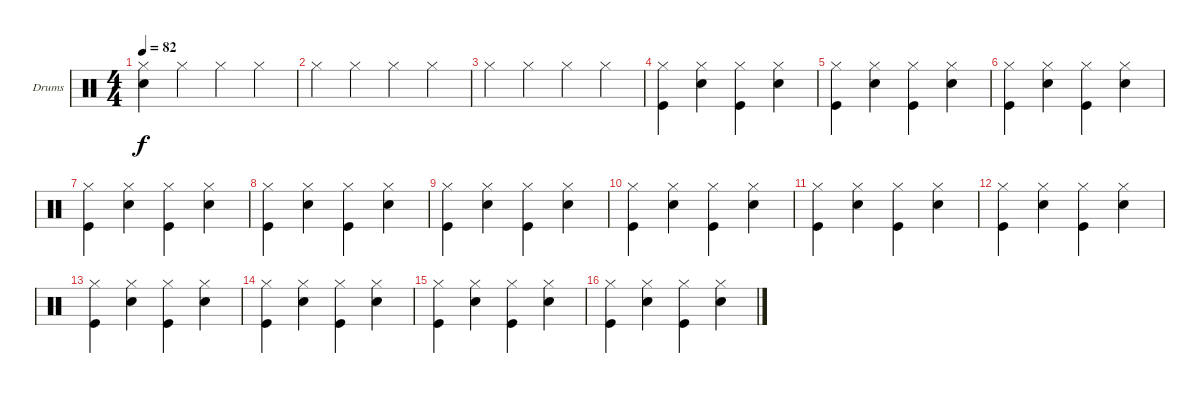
\bracketExtendMode groupsimilarinstruments
\firstSystemTrackNameOrientation horizontal
\otherSystemsTrackNameOrientation horizontal
\track ("Drumkit" "Drums") {instrument percussion}
\staff {score}
\articulation defaults
\ts (4 4)
\tempo 82
\clef neutral
\ks c
("Snare (hit) 2" "Hi-Hat (closed)").4{dy f} "Hi-Hat (closed)".4 "Hi-Hat (closed)".4 "Hi-Hat (closed)".4 |
"Hi-Hat (closed)".4 "Hi-Hat (closed)".4 "Hi-Hat (closed)".4 "Hi-Hat (closed)".4 |
"Hi-Hat (closed)".4 "Hi-Hat (closed)".4 "Hi-Hat (closed)".4 "Hi-Hat (closed)".4 |
("Hi-Hat (closed)" "Kick (hit)").4 ("Hi-Hat (closed)" "Snare (hit) 2").4 ("Hi-Hat (closed)" "Kick (hit)").4 ("Hi-Hat (closed)" "Snare (hit) 2").4 |
("Hi-Hat (closed)" "Kick (hit)").4 ("Hi-Hat (closed)" "Snare (hit) 2").4 ("Hi-Hat (closed)" "Kick (hit)").4 ("Hi-Hat (closed)" "Snare (hit) 2").4 |
("Hi-Hat (closed)" "Kick (hit)").4 ("Hi-Hat (closed)" "Snare (hit) 2").4 ("Hi-Hat (closed)" "Kick (hit)").4 ("Hi-Hat (closed)" "Snare (hit) 2").4 |
("Hi-Hat (closed)" "Kick (hit)").4 ("Hi-Hat (closed)" "Snare (hit) 2").4 ("Hi-Hat (closed)" "Kick (hit)").4 ("Hi-Hat (closed)" "Snare (hit) 2").4 |
("Hi-Hat (closed)" "Kick (hit)").4 ("Hi-Hat (closed)" "Snare (hit) 2").4 ("Hi-Hat (closed)" "Kick (hit)").4 ("Hi-Hat (closed)" "Snare (hit) 2").4 |
("Hi-Hat (closed)" "Kick (hit)").4 ("Hi-Hat (closed)" "Snare (hit) 2").4 ("Hi-Hat (closed)" "Kick (hit)").4 ("Hi-Hat (closed)" "Snare (hit) 2").4 |
("Hi-Hat (closed)" "Kick (hit)").4 ("Hi-Hat (closed)" "Snare (hit) 2").4 ("Hi-Hat (closed)" "Kick (hit)").4 ("Hi-Hat (closed)" "Snare (hit) 2").4 |
("Hi-Hat (closed)" "Kick (hit)").4 ("Hi-Hat (closed)" "Snare (hit) 2").4 ("Hi-Hat (closed)" "Kick (hit)").4 ("Hi-Hat (closed)" "Snare (hit) 2").4 |
("Hi-Hat (closed)" "Kick (hit)").4 ("Hi-Hat (closed)" "Snare (hit) 2").4 ("Hi-Hat (closed)" "Kick (hit)").4 ("Hi-Hat (closed)" "Snare (hit) 2").4 |
("Hi-Hat (closed)" "Kick (hit)").4 ("Hi-Hat (closed)" "Snare (hit) 2").4 ("Hi-Hat (closed)" "Kick (hit)").4 ("Hi-Hat (closed)" "Snare (hit) 2").4 |
("Hi-Hat (closed)" "Kick (hit)").4 ("Hi-Hat (closed)" "Snare (hit) 2").4 ("Hi-Hat (closed)" "Kick (hit)").4 ("Hi-Hat (closed)" "Snare (hit) 2").4 |
("Hi-Hat (closed)" "Kick (hit)").4 ("Hi-Hat (closed)" "Snare (hit) 2").4 ("Hi-Hat (closed)" "Kick (hit)").4 ("Hi-Hat (closed)" "Snare (hit) 2").4 |
("Hi-Hat (closed)" "Kick (hit)").4 ("Hi-Hat (closed)" "Snare (hit) 2").4 ("Hi-Hat (closed)" "Kick (hit)").4 ("Hi-Hat (closed)" "Snare (hit) 2").4
